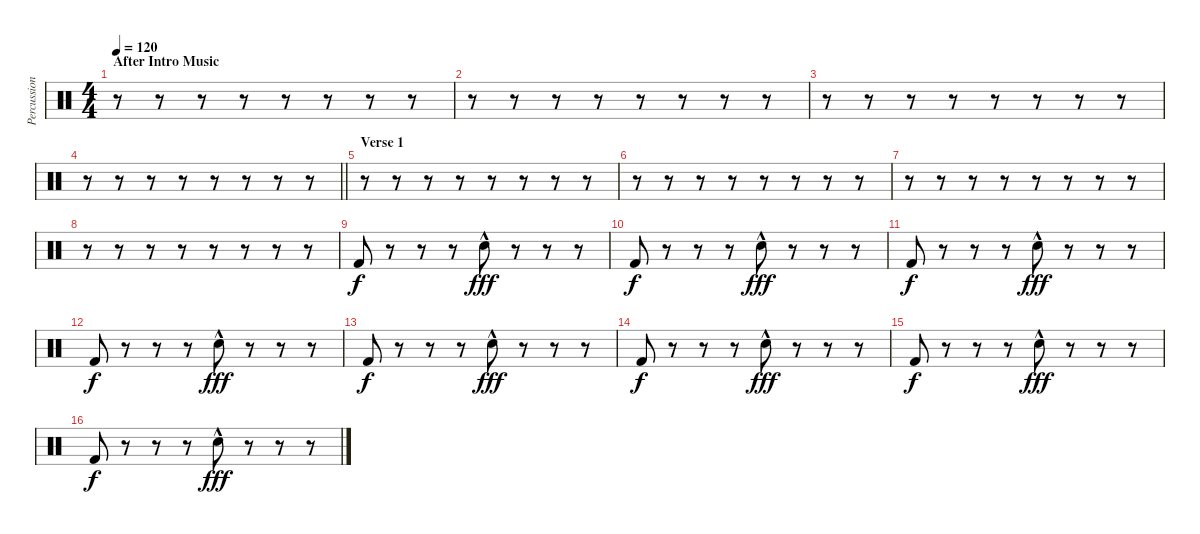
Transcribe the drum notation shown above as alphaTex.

\track ("Percussion" "Percussion") {instrument percussion}
\staff {score}
\articulation defaults
\ts (4 4)
\section ("" "After Intro Music")
\tempo 120
\clef neutral
\ks c
r.8{dy fff} r.8 r.8 r.8 r.8 r.8 r.8 r.8 |
r.8 r.8 r.8 r.8 r.8 r.8 r.8 r.8 |
r.8 r.8 r.8 r.8 r.8 r.8 r.8 r.8 |
\barLineRight lightlight
r.8 r.8 r.8 r.8 r.8 r.8 r.8 r.8 |
\section ("" "Verse 1")
r.8 r.8 r.8 r.8 r.8 r.8 r.8 r.8 |
r.8 r.8 r.8 r.8 r.8 r.8 r.8 r.8 |
r.8 r.8 r.8 r.8 r.8 r.8 r.8 r.8 |
r.8 r.8 r.8 r.8 r.8 r.8 r.8 r.8 |
"Kick (hit) 2".8{dy f} r.8 r.8 r.8 "Snare (hit) 2"{hac}.8{dy fff} r.8 r.8 r.8 |
"Kick (hit) 2".8{dy f} r.8 r.8 r.8 "Snare (hit) 2"{hac}.8{dy fff} r.8 r.8 r.8 |
"Kick (hit) 2".8{dy f} r.8 r.8 r.8 "Snare (hit) 2"{hac}.8{dy fff} r.8 r.8 r.8 |
"Kick (hit) 2".8{dy f} r.8 r.8 r.8 "Snare (hit) 2"{hac}.8{dy fff} r.8 r.8 r.8 |
"Kick (hit) 2".8{dy f} r.8 r.8 r.8 "Snare (hit) 2"{hac}.8{dy fff} r.8 r.8 r.8 |
"Kick (hit) 2".8{dy f} r.8 r.8 r.8 "Snare (hit) 2"{hac}.8{dy fff} r.8 r.8 r.8 |
"Kick (hit) 2".8{dy f} r.8 r.8 r.8 "Snare (hit) 2"{hac}.8{dy fff} r.8 r.8 r.8 |
"Kick (hit) 2".8{dy f} r.8 r.8 r.8 "Snare (hit) 2"{hac}.8{dy fff} r.8 r.8 r.8
